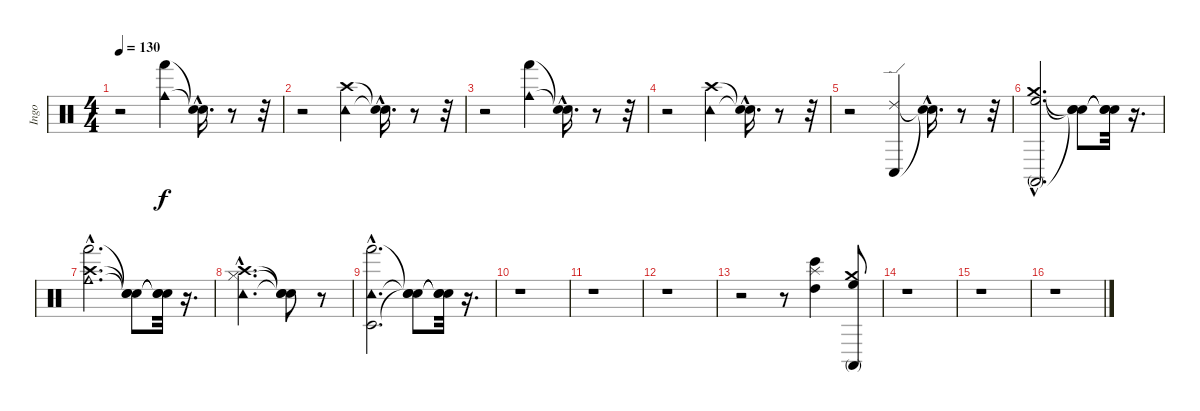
\track ("Ingo" "Ingo") {instrument percussion}
\staff {score}
\articulation defaults
\ts (4 4)
\tempo 130
\clef neutral
\ks c
r.2{dy f} ("Hand (hit)" "Cowbell medium (hit)").4 ("Snare (hit)"{hac t} "Snare (hit)"{hac t}).16{d} r.8 r.32 |
r.2 ("Crash high (hit)" "Tambourine (hit)").4 ("Snare (hit)"{hac t} "Snare (hit)"{hac t}).16{d} r.8 r.32 |
r.2 ("Hand (hit)" "Cowbell medium (hit)").4 ("Snare (hit)"{hac t} "Snare (hit)"{hac t}).16{d} r.8 r.32 |
r.2 ("Crash high (hit)" "Tambourine (hit)").4 ("Snare (hit)"{hac t} "Snare (hit)"{hac t}).16{d} r.8 r.32 |
r.2 ("Ride (edge) 2" "Conga low (hit)").4 ("Snare (hit)"{hac t} "Snare (hit)"{hac t}).16{d} r.8 r.32 |
("Conga high (mute)"{hac} "High Floor Tom (hit)"{hac} "Crash medium (hit)"{hac}).2{d} ("Snare (hit)"{t} "Snare (hit)"{t} "Snare (hit)"{t}).8 ("Snare (hit)"{t} "Snare (hit)"{t} "Snare (hit)"{t}).32 r.16{d} |
("Hand (hit)"{hac} "Crash high (hit)"{hac} "Cowbell medium (hit)"{hac}).2{d} ("Snare (hit)"{t} "Snare (hit)"{t} "Snare (hit)"{t}).8 ("Snare (hit)"{t} "Snare (hit)"{t} "Snare (hit)"{t}).32 r.16{d} |
("Tambourine (hit)"{hac} "Hi-Hat (closed)"{hac} "Crash high (hit)"{hac}).2{d} ("Snare (hit)"{t} "Snare (hit)"{t} "Snare (hit)"{t}).8 r.8 |
("Timbale low (hit)"{hac} "Tambourine (hit)"{hac} "Hand (hit)"{hac}).2{d} ("Snare (hit)"{t} "Snare (hit)"{t} "Snare (hit)"{t}).8 ("Snare (hit)"{t} "Snare (hit)"{t} "Snare (hit)"{t}).32 r.16{d} |
r.1 |
r.1 |
r.1 |
r.2 r.8 ("Bongo High (hit)" "High Tom (hit)" "Splash (hit)").4 ("High Floor Tom (hit)" "Conga high (mute)" "Crash medium (hit)").8 |
r.1 |
r.1 |
r.1
